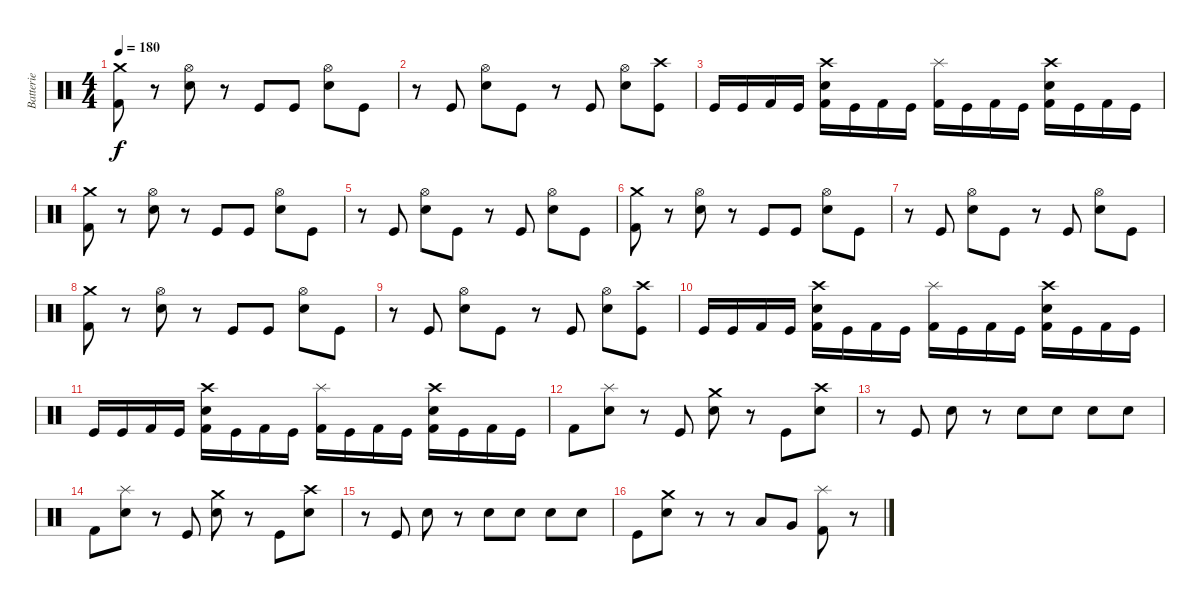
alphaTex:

\track ("Batterie" "Batterie") {instrument percussion}
\staff {score}
\articulation defaults
\ts (4 4)
\tempo 180
\clef neutral
\ks c
("Crash medium (hit)" "Kick (hit) 2").8{dy f} r.8 ("Hi-Hat (open)" "Electric Snare (hit)").8 r.8 "Kick (hit)".8 "Kick (hit)".8 ("Hi-Hat (open)" "Electric Snare (hit)").8 "Kick (hit)".8 |
r.8 "Kick (hit)".8 ("Hi-Hat (open)" "Electric Snare (hit)").8 "Kick (hit)".8 r.8 "Kick (hit)".8 ("Hi-Hat (open)" "Electric Snare (hit)").8 ("Crash high (hit)" "Kick (hit)").8 |
"Kick (hit)".16 "Kick (hit)".16 "Kick (hit) 2".16 "Kick (hit)".16 ("Crash high (hit)" "Electric Snare (hit)" "Kick (hit) 2").16 "Kick (hit)".16 "Kick (hit) 2".16 "Kick (hit)".16 ("Splash (hit)" "Kick (hit) 2").16 "Kick (hit)".16 "Kick (hit) 2".16 "Kick (hit)".16 ("Crash high (hit)" "Electric Snare (hit)" "Kick (hit) 2").16 "Kick (hit)".16 "Kick (hit) 2".16 "Kick (hit)".16 |
("Crash medium (hit)" "Kick (hit) 2").8 r.8 ("Hi-Hat (open)" "Electric Snare (hit)").8 r.8 "Kick (hit)".8 "Kick (hit)".8 ("Hi-Hat (open)" "Electric Snare (hit)").8 "Kick (hit)".8 |
r.8 "Kick (hit)".8 ("Hi-Hat (open)" "Electric Snare (hit)").8 "Kick (hit)".8 r.8 "Kick (hit)".8 ("Hi-Hat (open)" "Electric Snare (hit)").8 "Kick (hit)".8 |
("Crash medium (hit)" "Kick (hit) 2").8 r.8 ("Hi-Hat (open)" "Electric Snare (hit)").8 r.8 "Kick (hit)".8 "Kick (hit)".8 ("Hi-Hat (open)" "Electric Snare (hit)").8 "Kick (hit)".8 |
r.8 "Kick (hit)".8 ("Hi-Hat (open)" "Electric Snare (hit)").8 "Kick (hit)".8 r.8 "Kick (hit)".8 ("Hi-Hat (open)" "Electric Snare (hit)").8 "Kick (hit)".8 |
("Crash medium (hit)" "Kick (hit) 2").8 r.8 ("Hi-Hat (open)" "Electric Snare (hit)").8 r.8 "Kick (hit)".8 "Kick (hit)".8 ("Hi-Hat (open)" "Electric Snare (hit)").8 "Kick (hit)".8 |
r.8 "Kick (hit)".8 ("Hi-Hat (open)" "Electric Snare (hit)").8 "Kick (hit)".8 r.8 "Kick (hit)".8 ("Hi-Hat (open)" "Electric Snare (hit)").8 ("Crash high (hit)" "Kick (hit)").8 |
"Kick (hit)".16 "Kick (hit)".16 "Kick (hit) 2".16 "Kick (hit)".16 ("Crash high (hit)" "Electric Snare (hit)" "Kick (hit) 2").16 "Kick (hit)".16 "Kick (hit) 2".16 "Kick (hit)".16 ("Splash (hit)" "Kick (hit) 2").16 "Kick (hit)".16 "Kick (hit) 2".16 "Kick (hit)".16 ("Crash high (hit)" "Electric Snare (hit)" "Kick (hit) 2").16 "Kick (hit)".16 "Kick (hit) 2".16 "Kick (hit)".16 |
"Kick (hit)".16 "Kick (hit)".16 "Kick (hit) 2".16 "Kick (hit)".16 ("Crash high (hit)" "Electric Snare (hit)" "Kick (hit) 2").16 "Kick (hit)".16 "Kick (hit) 2".16 "Kick (hit)".16 ("Splash (hit)" "Kick (hit) 2").16 "Kick (hit)".16 "Kick (hit) 2".16 "Kick (hit)".16 ("Crash high (hit)" "Electric Snare (hit)" "Kick (hit) 2").16 "Kick (hit)".16 "Kick (hit) 2".16 "Kick (hit)".16 |
"Kick (hit) 2".8 ("Splash (hit)" "Electric Snare (hit)").8 r.8 "Kick (hit)".8 ("Crash medium (hit)" "Electric Snare (hit)").8 r.8 "Kick (hit)".8 ("Crash high (hit)" "Electric Snare (hit)").8 |
r.8 "Kick (hit)".8 "Electric Snare (hit)".8 r.8 "Electric Snare (hit)".8 "Electric Snare (hit)".8 "Electric Snare (hit)".8 "Electric Snare (hit)".8 |
"Kick (hit) 2".8 ("Splash (hit)" "Electric Snare (hit)").8 r.8 "Kick (hit)".8 ("Crash medium (hit)" "Electric Snare (hit)").8 r.8 "Kick (hit)".8 ("Crash high (hit)" "Electric Snare (hit)").8 |
r.8 "Kick (hit)".8 "Electric Snare (hit)".8 r.8 "Electric Snare (hit)".8 "Electric Snare (hit)".8 "Electric Snare (hit)".8 "Electric Snare (hit)".8 |
"Kick (hit)".8 ("Crash medium (hit)" "Electric Snare (hit)").8 r.8 r.8 "Low Tom (hit)".8 "Very Low Tom (hit)".8 ("Splash (hit)" "Kick (hit) 2").8 r.8
